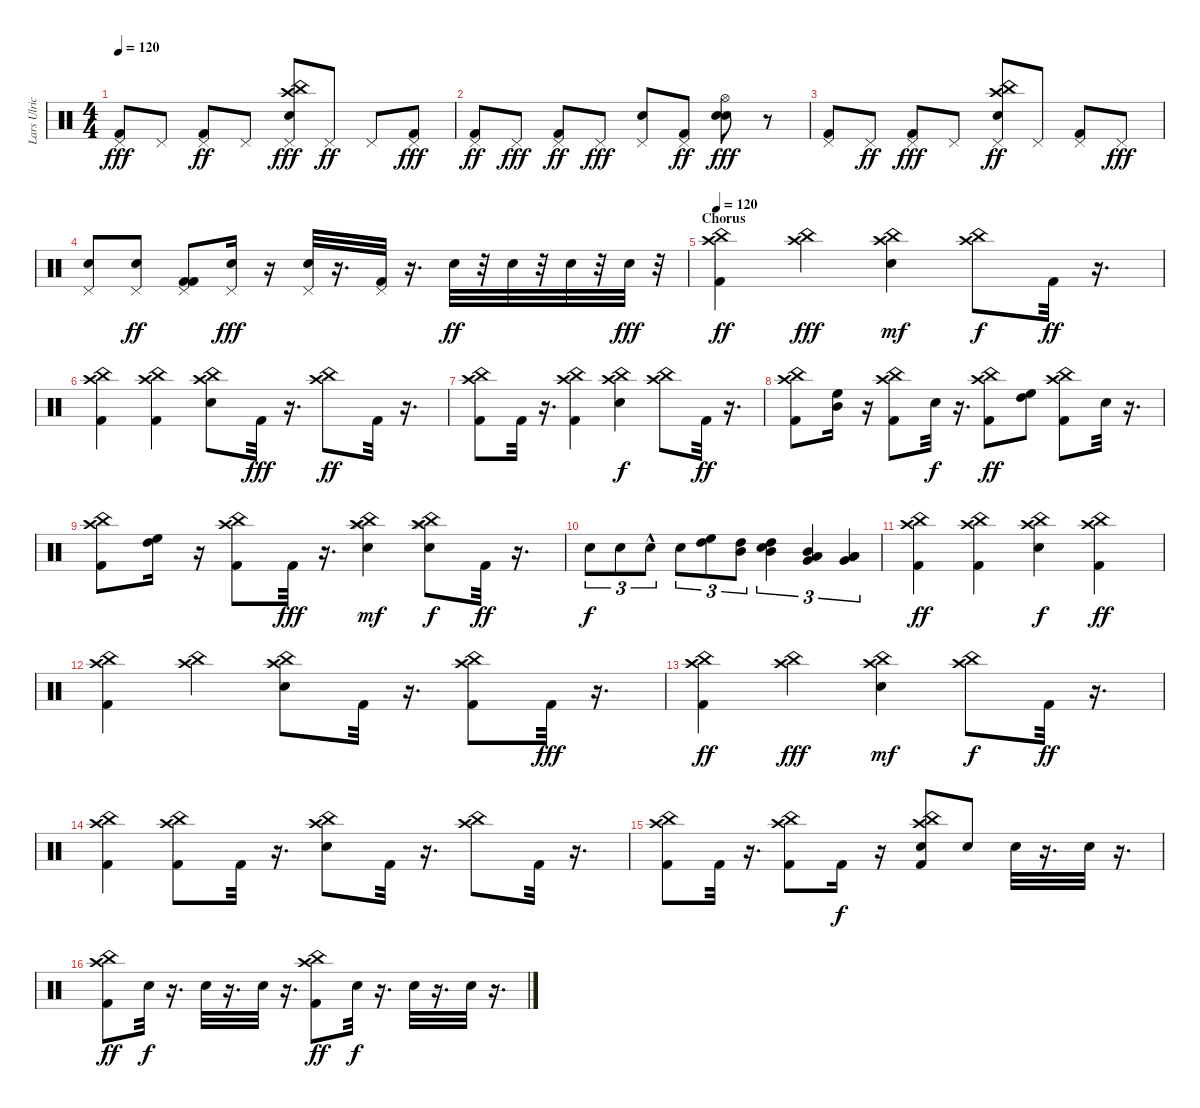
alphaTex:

\track ("Lars Ulrich" "Lars Ulric") {instrument percussion}
\staff {score}
\articulation defaults
\ts (4 4)
\tempo 120
\clef neutral
\ks c
("Kick (hit) 2" "Pedal Hi-Hat (hit)").8{dy fff} "Pedal Hi-Hat (hit)".8 ("Kick (hit) 2" "Pedal Hi-Hat (hit)").8{dy ff} "Pedal Hi-Hat (hit)".8 ("China (hit)" "Crash high (hit)" "Snare (hit) 2" "Pedal Hi-Hat (hit)").8{dy fff} "Pedal Hi-Hat (hit)".8{dy ff} "Pedal Hi-Hat (hit)".8 ("Kick (hit) 2" "Pedal Hi-Hat (hit)").8{dy fff} |
("Kick (hit) 2" "Pedal Hi-Hat (hit)").8{dy ff} "Pedal Hi-Hat (hit)".8{dy fff} ("Kick (hit) 2" "Pedal Hi-Hat (hit)").8{dy ff} "Pedal Hi-Hat (hit)".8{dy fff} ("Snare (hit) 2" "Pedal Hi-Hat (hit)").8 ("Kick (hit) 2" "Pedal Hi-Hat (hit)").8{dy ff} ("Snare (hit) 2" "Snare (hit) 2" "Hi-Hat (open)").8{dy fff} r.8 |
("Kick (hit) 2" "Pedal Hi-Hat (hit)").8 "Pedal Hi-Hat (hit)".8{dy ff} ("Kick (hit) 2" "Pedal Hi-Hat (hit)").8{dy fff} "Pedal Hi-Hat (hit)".8 ("China (hit)" "Crash high (hit)" "Snare (hit) 2" "Pedal Hi-Hat (hit)").8{dy ff} "Pedal Hi-Hat (hit)".8 ("Kick (hit) 2" "Pedal Hi-Hat (hit)").8 "Pedal Hi-Hat (hit)".8{dy fff} |
("Snare (hit) 2" "Pedal Hi-Hat (hit)").8 ("Snare (hit) 2" "Pedal Hi-Hat (hit)").8{dy ff} ("Kick (hit) 2" "Kick (hit) 2" "Pedal Hi-Hat (hit)").8 ("Snare (hit) 2" "Pedal Hi-Hat (hit)").16{dy fff} r.16 ("Snare (hit) 2" "Pedal Hi-Hat (hit)").32 r.16{d} ("Kick (hit) 2" "Pedal Hi-Hat (hit)").32 r.16{d} "Snare (hit) 2".32{dy ff} r.32 "Snare (hit) 2".32 r.32 "Snare (hit) 2".32 r.32 "Snare (hit) 2".32{dy fff} r.32 |
\section ("" "Chorus")
\tempo 120
("China (hit)" "Kick (hit) 2" "Crash high (hit)").4{dy ff} ("China (hit)" "Crash high (hit)").4{dy fff} ("Snare (hit) 2" "Crash high (hit)" "China (hit)").4{dy mf} ("Crash high (hit)" "China (hit)").8{dy f} "Kick (hit) 2".32{dy ff} r.16{d} |
("Kick (hit) 2" "Crash high (hit)" "China (hit)").4 ("Kick (hit) 2" "Crash high (hit)" "China (hit)").4 ("Crash high (hit)" "China (hit)" "Snare (hit) 2").8 "Kick (hit) 2".32{dy fff} r.16{d} ("Crash high (hit)" "China (hit)").8{dy ff} "Kick (hit) 2".32 r.16{d} |
("Kick (hit) 2" "China (hit)" "Crash high (hit)").8 "Kick (hit) 2".32 r.16{d} ("Kick (hit) 2" "Crash high (hit)" "China (hit)").4 ("Snare (hit) 2" "China (hit)" "Crash high (hit)").4{dy f} ("Crash high (hit)" "China (hit)").8 "Kick (hit) 2".32{dy ff} r.16{d} |
("Kick (hit) 2" "Crash high (hit)" "China (hit)").8 ("High Floor Tom (hit)" "Mid Tom (hit)").16 r.16 ("Kick (hit) 2" "Crash high (hit)" "China (hit)").8 "Snare (hit) 2".32{dy f} r.16{d} ("Kick (hit) 2" "Crash high (hit)" "China (hit)").8{dy ff} ("High Floor Tom (hit)" "High Tom (hit)").8 ("Kick (hit) 2" "China (hit)" "Crash high (hit)").8 "Snare (hit) 2".32 r.16{d} |
("China (hit)" "Kick (hit) 2" "Crash high (hit)").8 ("High Tom (hit)" "High Floor Tom (hit)").16 r.16 ("China (hit)" "Crash high (hit)" "Kick (hit) 2").8 "Kick (hit) 2".32{dy fff} r.16{d} ("Splash (hit)" "Snare (hit) 2" "Crash high (hit)" "China (hit)").4{dy mf} ("Splash (hit)" "Snare (hit) 2" "Crash high (hit)" "China (hit)").8{dy f} "Kick (hit) 2".32{dy ff} r.16{d} |
"Snare (hit) 2".8{tu (3 2) dy f} "Snare (hit) 2".8{tu (3 2)} "Snare (hit) 2"{hac}.8{tu (3 2)} "Snare (hit) 2".8{tu (3 2)} ("High Floor Tom (hit)" "High Tom (hit)").8{tu (3 2)} ("High Tom (hit)" "Mid Tom (hit)").8{tu (3 2)} ("Mid Tom (hit)" "High Tom (hit)" "Snare (hit) 2").4{tu (3 2)} ("Very Low Tom (hit)" "Low Tom (hit)" "Mid Tom (hit)").4{tu (3 2)} ("Low Floor Tom (hit)" "Very Low Tom (hit)" "Low Tom (hit)").4{tu (3 2)} |
("Kick (hit) 2" "China (hit)" "Crash high (hit)").4{dy ff} ("Kick (hit) 2" "Crash high (hit)" "China (hit)").4 ("Snare (hit) 2" "China (hit)" "Crash high (hit)").4{dy f} ("Kick (hit) 2" "Crash high (hit)" "China (hit)").4{dy ff} |
("Kick (hit) 2" "Crash high (hit)" "China (hit)").4 ("Crash high (hit)" "China (hit)").4 ("Crash high (hit)" "China (hit)" "Snare (hit) 2").8 "Kick (hit) 2".32 r.16{d} ("Kick (hit) 2" "China (hit)" "Crash high (hit)").8 "Kick (hit) 2".32{dy fff} r.16{d} |
("China (hit)" "Kick (hit) 2" "Crash high (hit)").4{dy ff} ("China (hit)" "Crash high (hit)").4{dy fff} ("Snare (hit) 2" "Crash high (hit)" "China (hit)").4{dy mf} ("Crash high (hit)" "China (hit)").8{dy f} "Kick (hit) 2".32{dy ff} r.16{d} |
("Kick (hit) 2" "Crash high (hit)" "China (hit)").4 ("Kick (hit) 2" "Crash high (hit)" "China (hit)").8 "Kick (hit) 2".32 r.16{d} ("Crash high (hit)" "China (hit)" "Snare (hit) 2").8 "Kick (hit) 2".32 r.16{d} ("Crash high (hit)" "China (hit)").8 "Kick (hit) 2".32 r.16{d} |
("Kick (hit) 2" "China (hit)" "Crash high (hit)").8 "Kick (hit) 2".32 r.16{d} ("Kick (hit) 2" "Crash high (hit)" "China (hit)").8 "Kick (hit) 2".16{dy f} r.16 ("Kick (hit) 2" "Snare (hit) 2" "China (hit)" "Crash high (hit)").8 "Snare (hit) 2".8 "Snare (hit) 2".32 r.16{d} "Snare (hit) 2".32 r.16{d} |
("Kick (hit) 2" "Crash high (hit)" "China (hit)").8{dy ff} "Snare (hit) 2".32{dy f} r.16{d} "Snare (hit) 2".32 r.16{d} "Snare (hit) 2".32 r.16{d} ("China (hit)" "Crash high (hit)" "Kick (hit) 2").8{dy ff} "Snare (hit) 2".32{dy f} r.16{d} "Snare (hit) 2".32 r.16{d} "Snare (hit) 2".32 r.16{d}
